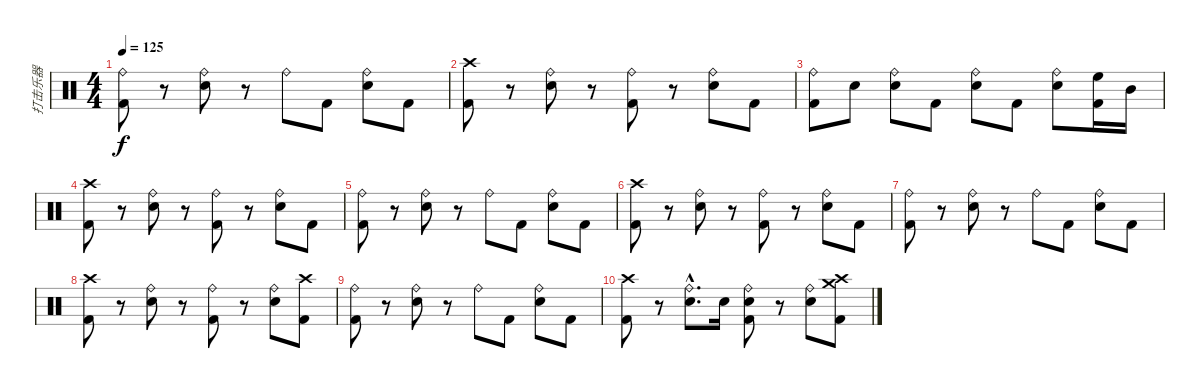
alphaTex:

\track ("打击乐器" "打击乐器") {instrument percussion}
\staff {score}
\articulation defaults
\ts (4 4)
\tempo 125
\clef neutral
\ks c
("Ride (bell)" "Kick (hit) 2").8{dy f} r.8 ("Ride (bell)" "Snare (hit) 2").8 r.8 "Ride (bell)".8 "Kick (hit) 2".8 ("Ride (bell)" "Snare (hit) 2").8 "Kick (hit) 2".8 |
("Crash high (hit)" "Kick (hit) 2").8 r.8 ("Ride (bell)" "Snare (hit) 2").8 r.8 ("Ride (bell)" "Kick (hit) 2").8 r.8 ("Ride (bell)" "Snare (hit) 2").8 "Kick (hit) 2".8 |
("Ride (bell)" "Kick (hit) 2").8 "Snare (hit) 2".8 ("Ride (bell)" "Snare (hit) 2").8 "Kick (hit) 2".8 ("Ride (bell)" "Snare (hit) 2").8 "Kick (hit) 2".8 ("Ride (bell)" "Snare (hit) 2").8 ("High Floor Tom (hit)" "Kick (hit) 2").16 "Mid Tom (hit)".16 |
("Crash high (hit)" "Kick (hit) 2").8 r.8 ("Ride (bell)" "Snare (hit) 2").8 r.8 ("Ride (bell)" "Kick (hit) 2").8 r.8 ("Ride (bell)" "Snare (hit) 2").8 "Kick (hit) 2".8 |
("Ride (bell)" "Kick (hit) 2").8 r.8 ("Ride (bell)" "Snare (hit) 2").8 r.8 "Ride (bell)".8 "Kick (hit) 2".8 ("Ride (bell)" "Snare (hit) 2").8 "Kick (hit) 2".8 |
("Crash high (hit)" "Kick (hit) 2").8 r.8 ("Ride (bell)" "Snare (hit) 2").8 r.8 ("Ride (bell)" "Kick (hit) 2").8 r.8 ("Ride (bell)" "Snare (hit) 2").8 "Kick (hit) 2".8 |
("Ride (bell)" "Kick (hit) 2").8 r.8 ("Ride (bell)" "Snare (hit) 2").8 r.8 "Ride (bell)".8 "Kick (hit) 2".8 ("Ride (bell)" "Snare (hit) 2").8 "Kick (hit) 2".8 |
("Crash high (hit)" "Kick (hit) 2").8 r.8 ("Ride (bell)" "Snare (hit) 2").8 r.8 ("Ride (bell)" "Kick (hit) 2").8 r.8 ("Ride (bell)" "Snare (hit) 2").8 ("Crash high (hit)" "Kick (hit) 2").8 |
("Ride (bell)" "Kick (hit) 2").8 r.8 ("Ride (bell)" "Snare (hit) 2").8 r.8 "Ride (bell)".8 "Kick (hit) 2".8 ("Ride (bell)" "Snare (hit) 2").8 "Kick (hit) 2".8 |
("Crash high (hit)" "Kick (hit) 2").8 r.8 ("Ride (bell)"{hac} "Snare (hit) 2"{hac}).8{d} "Snare (hit) 2".16 ("Ride (bell)" "Snare (hit) 2" "Kick (hit) 2").8 r.8 ("Ride (bell)" "Snare (hit) 2").8 ("Crash high (hit)" "Crash medium (hit)" "Kick (hit) 2").8
